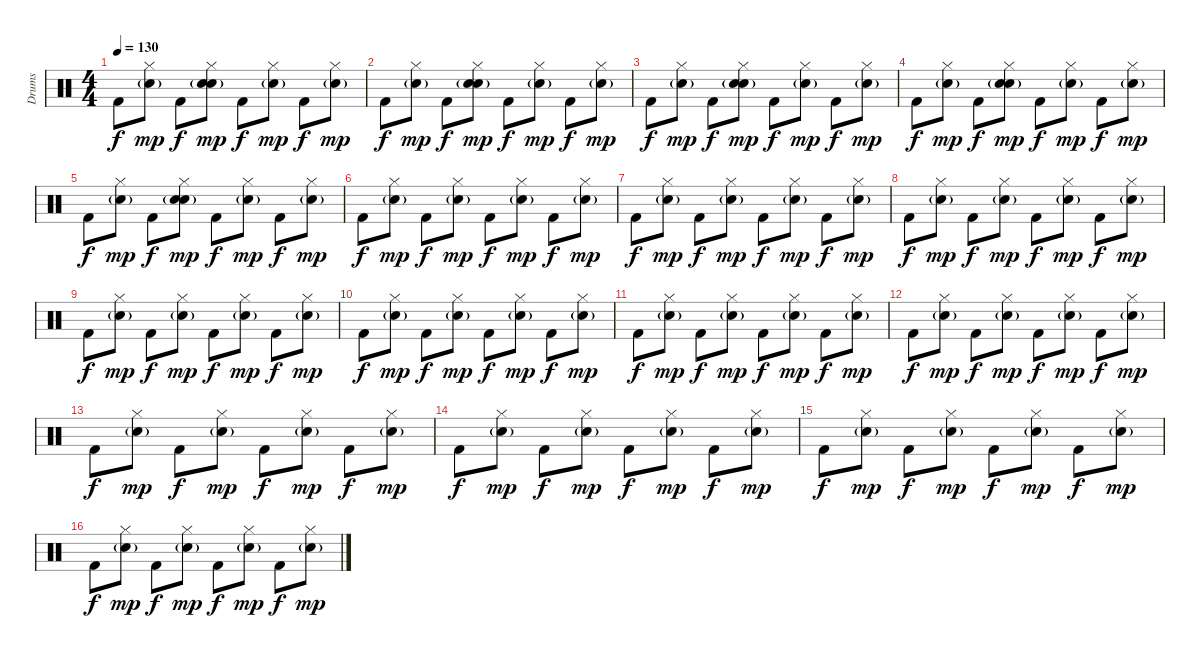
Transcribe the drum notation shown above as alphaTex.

\track ("Drums" "Drums") {instrument percussion}
\staff {score}
\articulation defaults
\ts (4 4)
\tempo 130
\clef neutral
\ks c "Kick (hit) 2".8{dy f}
("Hi-Hat (closed)" "Hand Clap (hit)"{g}).8{dy mp} "Kick (hit) 2".8{dy f} ("Hi-Hat (closed)" "Hand Clap (hit)"{g} "Electric Snare (hit)").8{dy mp} "Kick (hit) 2".8{dy f} ("Hi-Hat (closed)" "Hand Clap (hit)"{g}).8{dy mp} "Kick (hit) 2".8{dy f} ("Hi-Hat (closed)" "Hand Clap (hit)"{g}).8{dy mp} |
"Kick (hit) 2".8{dy f} ("Hi-Hat (closed)" "Hand Clap (hit)"{g}).8{dy mp} "Kick (hit) 2".8{dy f} ("Hi-Hat (closed)" "Hand Clap (hit)"{g} "Electric Snare (hit)").8{dy mp} "Kick (hit) 2".8{dy f} ("Hi-Hat (closed)" "Hand Clap (hit)"{g}).8{dy mp} "Kick (hit) 2".8{dy f} ("Hi-Hat (closed)" "Hand Clap (hit)"{g}).8{dy mp} |
"Kick (hit) 2".8{dy f} ("Hi-Hat (closed)" "Hand Clap (hit)"{g}).8{dy mp} "Kick (hit) 2".8{dy f} ("Hi-Hat (closed)" "Hand Clap (hit)"{g} "Electric Snare (hit)").8{dy mp} "Kick (hit) 2".8{dy f} ("Hi-Hat (closed)" "Hand Clap (hit)"{g}).8{dy mp} "Kick (hit) 2".8{dy f} ("Hi-Hat (closed)" "Hand Clap (hit)"{g}).8{dy mp} |
"Kick (hit) 2".8{dy f} ("Hi-Hat (closed)" "Hand Clap (hit)"{g}).8{dy mp} "Kick (hit) 2".8{dy f} ("Hi-Hat (closed)" "Hand Clap (hit)"{g} "Electric Snare (hit)").8{dy mp} "Kick (hit) 2".8{dy f} ("Hi-Hat (closed)" "Hand Clap (hit)"{g}).8{dy mp} "Kick (hit) 2".8{dy f} ("Hi-Hat (closed)" "Hand Clap (hit)"{g}).8{dy mp} |
"Kick (hit) 2".8{dy f} ("Hi-Hat (closed)" "Hand Clap (hit)"{g}).8{dy mp} "Kick (hit) 2".8{dy f} ("Hi-Hat (closed)" "Hand Clap (hit)"{g} "Electric Snare (hit)").8{dy mp} "Kick (hit) 2".8{dy f} ("Hi-Hat (closed)" "Hand Clap (hit)"{g}).8{dy mp} "Kick (hit) 2".8{dy f} ("Hi-Hat (closed)" "Hand Clap (hit)"{g}).8{dy mp} |
"Kick (hit) 2".8{dy f} ("Hi-Hat (closed)" "Hand Clap (hit)"{g}).8{dy mp} "Kick (hit) 2".8{dy f} ("Hi-Hat (closed)" "Hand Clap (hit)"{g}).8{dy mp} "Kick (hit) 2".8{dy f} ("Hi-Hat (closed)" "Hand Clap (hit)"{g}).8{dy mp} "Kick (hit) 2".8{dy f} ("Hi-Hat (closed)" "Hand Clap (hit)"{g}).8{dy mp} |
"Kick (hit) 2".8{dy f} ("Hi-Hat (closed)" "Hand Clap (hit)"{g}).8{dy mp} "Kick (hit) 2".8{dy f} ("Hi-Hat (closed)" "Hand Clap (hit)"{g}).8{dy mp} "Kick (hit) 2".8{dy f} ("Hi-Hat (closed)" "Hand Clap (hit)"{g}).8{dy mp} "Kick (hit) 2".8{dy f} ("Hi-Hat (closed)" "Hand Clap (hit)"{g}).8{dy mp} |
"Kick (hit) 2".8{dy f} ("Hi-Hat (closed)" "Hand Clap (hit)"{g}).8{dy mp} "Kick (hit) 2".8{dy f} ("Hi-Hat (closed)" "Hand Clap (hit)"{g}).8{dy mp} "Kick (hit) 2".8{dy f} ("Hi-Hat (closed)" "Hand Clap (hit)"{g}).8{dy mp} "Kick (hit) 2".8{dy f} ("Hi-Hat (closed)" "Hand Clap (hit)"{g}).8{dy mp} |
"Kick (hit) 2".8{dy f} ("Hi-Hat (closed)" "Hand Clap (hit)"{g}).8{dy mp} "Kick (hit) 2".8{dy f} ("Hi-Hat (closed)" "Hand Clap (hit)"{g}).8{dy mp} "Kick (hit) 2".8{dy f} ("Hi-Hat (closed)" "Hand Clap (hit)"{g}).8{dy mp} "Kick (hit) 2".8{dy f} ("Hi-Hat (closed)" "Hand Clap (hit)"{g}).8{dy mp} |
"Kick (hit) 2".8{dy f} ("Hi-Hat (closed)" "Hand Clap (hit)"{g}).8{dy mp} "Kick (hit) 2".8{dy f} ("Hi-Hat (closed)" "Hand Clap (hit)"{g}).8{dy mp} "Kick (hit) 2".8{dy f} ("Hi-Hat (closed)" "Hand Clap (hit)"{g}).8{dy mp} "Kick (hit) 2".8{dy f} ("Hi-Hat (closed)" "Hand Clap (hit)"{g}).8{dy mp} |
"Kick (hit) 2".8{dy f} ("Hi-Hat (closed)" "Hand Clap (hit)"{g}).8{dy mp} "Kick (hit) 2".8{dy f} ("Hi-Hat (closed)" "Hand Clap (hit)"{g}).8{dy mp} "Kick (hit) 2".8{dy f} ("Hi-Hat (closed)" "Hand Clap (hit)"{g}).8{dy mp} "Kick (hit) 2".8{dy f} ("Hi-Hat (closed)" "Hand Clap (hit)"{g}).8{dy mp} |
"Kick (hit) 2".8{dy f} ("Hi-Hat (closed)" "Hand Clap (hit)"{g}).8{dy mp} "Kick (hit) 2".8{dy f} ("Hi-Hat (closed)" "Hand Clap (hit)"{g}).8{dy mp} "Kick (hit) 2".8{dy f} ("Hi-Hat (closed)" "Hand Clap (hit)"{g}).8{dy mp} "Kick (hit) 2".8{dy f} ("Hi-Hat (closed)" "Hand Clap (hit)"{g}).8{dy mp} |
"Kick (hit) 2".8{dy f} ("Hi-Hat (closed)" "Hand Clap (hit)"{g}).8{dy mp} "Kick (hit) 2".8{dy f} ("Hi-Hat (closed)" "Hand Clap (hit)"{g}).8{dy mp} "Kick (hit) 2".8{dy f} ("Hi-Hat (closed)" "Hand Clap (hit)"{g}).8{dy mp} "Kick (hit) 2".8{dy f} ("Hi-Hat (closed)" "Hand Clap (hit)"{g}).8{dy mp} |
"Kick (hit) 2".8{dy f} ("Hi-Hat (closed)" "Hand Clap (hit)"{g}).8{dy mp} "Kick (hit) 2".8{dy f} ("Hi-Hat (closed)" "Hand Clap (hit)"{g}).8{dy mp} "Kick (hit) 2".8{dy f} ("Hi-Hat (closed)" "Hand Clap (hit)"{g}).8{dy mp} "Kick (hit) 2".8{dy f} ("Hi-Hat (closed)" "Hand Clap (hit)"{g}).8{dy mp} |
"Kick (hit) 2".8{dy f} ("Hi-Hat (closed)" "Hand Clap (hit)"{g}).8{dy mp} "Kick (hit) 2".8{dy f} ("Hi-Hat (closed)" "Hand Clap (hit)"{g}).8{dy mp} "Kick (hit) 2".8{dy f} ("Hi-Hat (closed)" "Hand Clap (hit)"{g}).8{dy mp} "Kick (hit) 2".8{dy f} ("Hi-Hat (closed)" "Hand Clap (hit)"{g}).8{dy mp} |
"Kick (hit) 2".8{dy f} ("Hi-Hat (closed)" "Hand Clap (hit)"{g}).8{dy mp} "Kick (hit) 2".8{dy f} ("Hi-Hat (closed)" "Hand Clap (hit)"{g}).8{dy mp} "Kick (hit) 2".8{dy f} ("Hi-Hat (closed)" "Hand Clap (hit)"{g}).8{dy mp} "Kick (hit) 2".8{dy f} ("Hi-Hat (closed)" "Hand Clap (hit)"{g}).8{dy mp}
